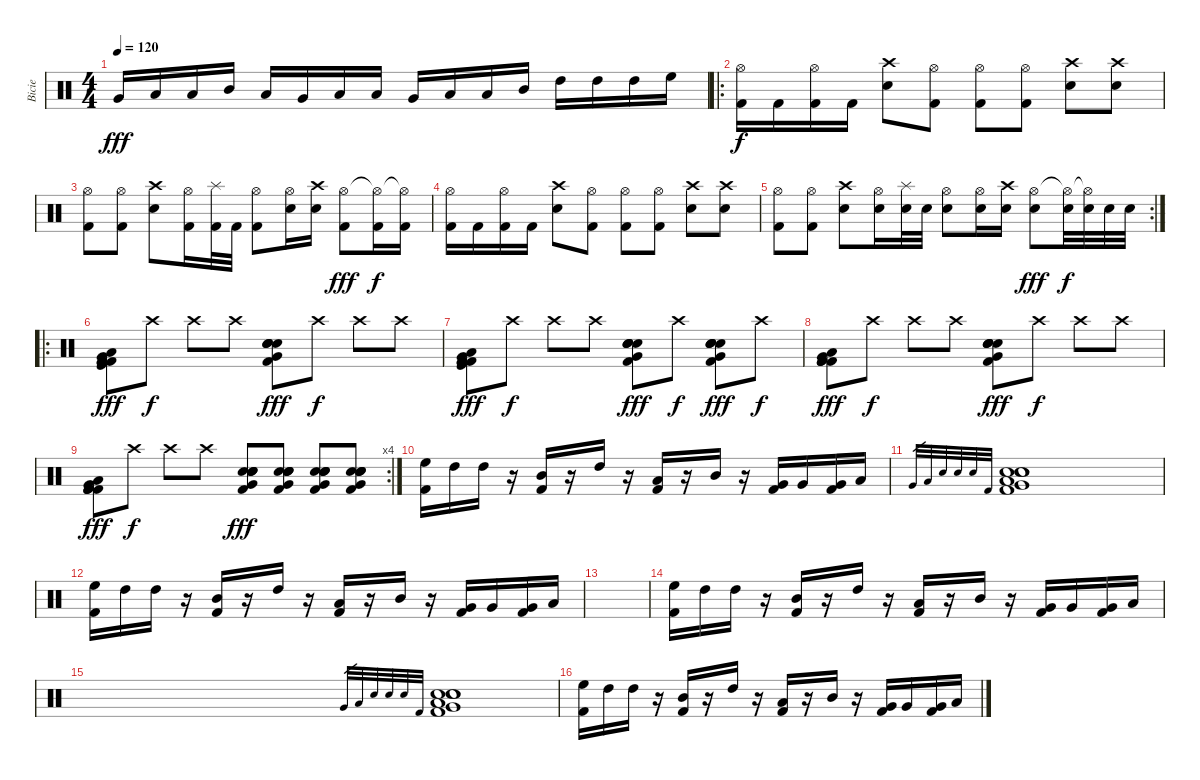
\track ("Bicie" "Bicie") {instrument percussion}
\staff {score}
\articulation defaults
\ts (4 4)
\tempo 120
\clef neutral
\ks c "Very Low Tom (hit)".16{dy fff} "Low Tom (hit)".16 "Low Tom (hit)".16 "Mid Tom (hit)".16 "Low Tom (hit)".16 "Very Low Tom (hit)".16 "Low Floor Tom (hit)".16 "Low Floor Tom (hit)".16 "Very Low Tom (hit)".16 "Low Tom (hit)".16 "Low Tom (hit)".16 "Mid Tom (hit)".16 "High Tom (hit)".16 "High Tom (hit)".16 "High Tom (hit)".16 "High Floor Tom (hit)".16
|
\ro
("Hi-Hat (open)" "Kick (hit) 2").16{dy f} "Kick (hit) 2".16 ("Hi-Hat (open)" "Kick (hit) 2").16 "Kick (hit) 2".16 ("Crash high (hit)" "Snare (hit) 2").8 ("Hi-Hat (open)" "Kick (hit) 2").8 ("Hi-Hat (open)" "Kick (hit) 2").8 ("Hi-Hat (open)" "Kick (hit) 2").8 ("Crash high (hit)" "Snare (hit) 2").8 ("Crash high (hit)" "Snare (hit) 2").8 |
("Hi-Hat (open)" "Kick (hit) 2").8 ("Hi-Hat (open)" "Kick (hit) 2").8 ("Crash high (hit)" "Snare (hit) 2").8 ("Hi-Hat (open)" "Kick (hit) 2").16 ("Splash (hit)" "Kick (hit) 2").32 "Kick (hit) 2".32 ("Hi-Hat (open)" "Kick (hit) 2").8 ("Hi-Hat (open)" "Snare (hit) 2").16 ("Crash high (hit)" "Snare (hit) 2").16 ("Hi-Hat (open)" "Kick (hit) 2").8{dy fff} ("Hi-Hat (open)"{t} "Kick (hit) 2").16{dy f} ("Hi-Hat (open)"{t} "Kick (hit) 2").16 |
("Hi-Hat (open)" "Kick (hit) 2").16 "Kick (hit) 2".16 ("Hi-Hat (open)" "Kick (hit) 2").16 "Kick (hit) 2".16 ("Crash high (hit)" "Snare (hit) 2").8 ("Hi-Hat (open)" "Kick (hit) 2").8 ("Hi-Hat (open)" "Kick (hit) 2").8 ("Hi-Hat (open)" "Kick (hit) 2").8 ("Crash high (hit)" "Snare (hit) 2").8 ("Crash high (hit)" "Snare (hit) 2").8 |
\rc 2
("Hi-Hat (open)" "Kick (hit) 2").8 ("Hi-Hat (open)" "Kick (hit) 2").8 ("Crash high (hit)" "Snare (hit) 2").8 ("Hi-Hat (open)" "Snare (hit) 2").16 ("Splash (hit)" "Snare (hit) 2").32 "Snare (hit) 2".32 ("Hi-Hat (open)" "Snare (hit) 2").8 ("Hi-Hat (open)" "Snare (hit) 2").16 ("Crash high (hit)" "Snare (hit) 2").16 ("Hi-Hat (open)" "Snare (hit) 2").8{dy fff} ("Hi-Hat (open)"{t} "Snare (hit) 2").32{dy f} ("Hi-Hat (open)"{t} "Snare (hit) 2").32 "Snare (hit) 2".32 "Snare (hit) 2".32 |
\ro
("Very Low Tom (hit)" "Kick (hit)" "Kick (hit) 2" "Kick (hit) 2" "Kick (hit) 2" "Low Floor Tom (hit)").8{dy fff} "Crash high (hit)".8{dy f} "Crash high (hit)".8 "Crash high (hit)".8 ("Very Low Tom (hit)" "Electric Snare (hit)" "Electric Snare (hit)" "Electric Snare (hit)" "Electric Snare (hit)" "Kick (hit) 2").8{dy fff} "Crash high (hit)".8{dy f} "Crash high (hit)".8 "Crash high (hit)".8 |
("Very Low Tom (hit)" "Kick (hit)" "Kick (hit) 2" "Kick (hit) 2" "Kick (hit) 2" "Low Floor Tom (hit)").8{dy fff} "Crash high (hit)".8{dy f} "Crash high (hit)".8 "Crash high (hit)".8 ("Very Low Tom (hit)" "Electric Snare (hit)" "Electric Snare (hit)" "Electric Snare (hit)" "Electric Snare (hit)" "Kick (hit) 2").8{dy fff} "Crash high (hit)".8{dy f} ("Very Low Tom (hit)" "Electric Snare (hit)" "Electric Snare (hit)" "Electric Snare (hit)" "Electric Snare (hit)" "Kick (hit) 2").8{dy fff} "Crash high (hit)".8{dy f} |
("Very Low Tom (hit)" "Kick (hit) 2" "Kick (hit) 2" "Kick (hit) 2" "Kick (hit) 2" "Low Floor Tom (hit)").8{dy fff} "Crash high (hit)".8{dy f} "Crash high (hit)".8 "Crash high (hit)".8 ("Very Low Tom (hit)" "Electric Snare (hit)" "Electric Snare (hit)" "Electric Snare (hit)" "Electric Snare (hit)" "Kick (hit) 2").8{dy fff} "Crash high (hit)".8{dy f} "Crash high (hit)".8 "Crash high (hit)".8 |
\rc 4
("Very Low Tom (hit)" "Kick (hit) 2" "Kick (hit) 2" "Kick (hit) 2" "Kick (hit) 2" "Low Floor Tom (hit)").8{dy fff} "Crash high (hit)".8{dy f} "Crash high (hit)".8 "Crash high (hit)".8 ("Very Low Tom (hit)" "Electric Snare (hit)" "Electric Snare (hit)" "Electric Snare (hit)" "Electric Snare (hit)" "Kick (hit) 2").8{dy fff} ("Very Low Tom (hit)" "Electric Snare (hit)" "Electric Snare (hit)" "Electric Snare (hit)" "Electric Snare (hit)" "Kick (hit) 2").8 ("Very Low Tom (hit)" "Electric Snare (hit)" "Electric Snare (hit)" "Electric Snare (hit)" "Electric Snare (hit)" "Kick (hit) 2").8 ("Very Low Tom (hit)" "Electric Snare (hit)" "Electric Snare (hit)" "Electric Snare (hit)" "Electric Snare (hit)" "Kick (hit) 2").8 |
("High Floor Tom (hit)" "Kick (hit) 2").16 "High Tom (hit)".16 "High Tom (hit)".16 r.16 ("Mid Tom (hit)" "Kick (hit) 2").16 r.16 "High Tom (hit)".16 r.16 ("Low Tom (hit)" "Kick (hit) 2").16 r.16 "Mid Tom (hit)".16 r.16 ("Very Low Tom (hit)" "Kick (hit) 2").16 "Very Low Tom (hit)".16 ("Very Low Tom (hit)" "Kick (hit) 2").16 "Low Floor Tom (hit)".16 |
"Very Low Tom (hit)".32{gr} "Low Floor Tom (hit)".32{gr} "Snare (hit) 2".32{gr} "Electric Snare (hit)".32{gr} "Electric Snare (hit)".32{gr} "Kick (hit) 2".32{gr} ("Very Low Tom (hit)" "Low Floor Tom (hit)" "Snare (hit) 2" "Electric Snare (hit)" "Electric Snare (hit)" "Kick (hit) 2").1 |
("High Floor Tom (hit)" "Kick (hit) 2").16 "High Tom (hit)".16 "High Tom (hit)".16 r.16 ("Mid Tom (hit)" "Kick (hit) 2").16 r.16 "High Tom (hit)".16 r.16 ("Low Tom (hit)" "Kick (hit) 2").16 r.16 "Mid Tom (hit)".16 r.16 ("Very Low Tom (hit)" "Kick (hit) 2").16 "Very Low Tom (hit)".16 ("Very Low Tom (hit)" "Kick (hit) 2").16 "Low Floor Tom (hit)".16 |
|
("High Floor Tom (hit)" "Kick (hit) 2").16 "High Tom (hit)".16 "High Tom (hit)".16 r.16 ("Mid Tom (hit)" "Kick (hit) 2").16 r.16 "High Tom (hit)".16 r.16 ("Low Tom (hit)" "Kick (hit) 2").16 r.16 "Mid Tom (hit)".16 r.16 ("Very Low Tom (hit)" "Kick (hit) 2").16 "Very Low Tom (hit)".16 ("Very Low Tom (hit)" "Kick (hit) 2").16 "Low Floor Tom (hit)".16 |
"Very Low Tom (hit)".32{gr} "Low Floor Tom (hit)".32{gr} "Snare (hit) 2".32{gr} "Electric Snare (hit)".32{gr} "Electric Snare (hit)".32{gr} "Kick (hit) 2".32{gr} ("Very Low Tom (hit)" "Low Floor Tom (hit)" "Snare (hit) 2" "Electric Snare (hit)" "Electric Snare (hit)" "Kick (hit) 2").1 |
("High Floor Tom (hit)" "Kick (hit) 2").16 "High Tom (hit)".16 "High Tom (hit)".16 r.16 ("Mid Tom (hit)" "Kick (hit) 2").16 r.16 "High Tom (hit)".16 r.16 ("Low Tom (hit)" "Kick (hit) 2").16 r.16 "Mid Tom (hit)".16 r.16 ("Very Low Tom (hit)" "Kick (hit) 2").16 "Very Low Tom (hit)".16 ("Very Low Tom (hit)" "Kick (hit) 2").16 "Low Floor Tom (hit)".16
